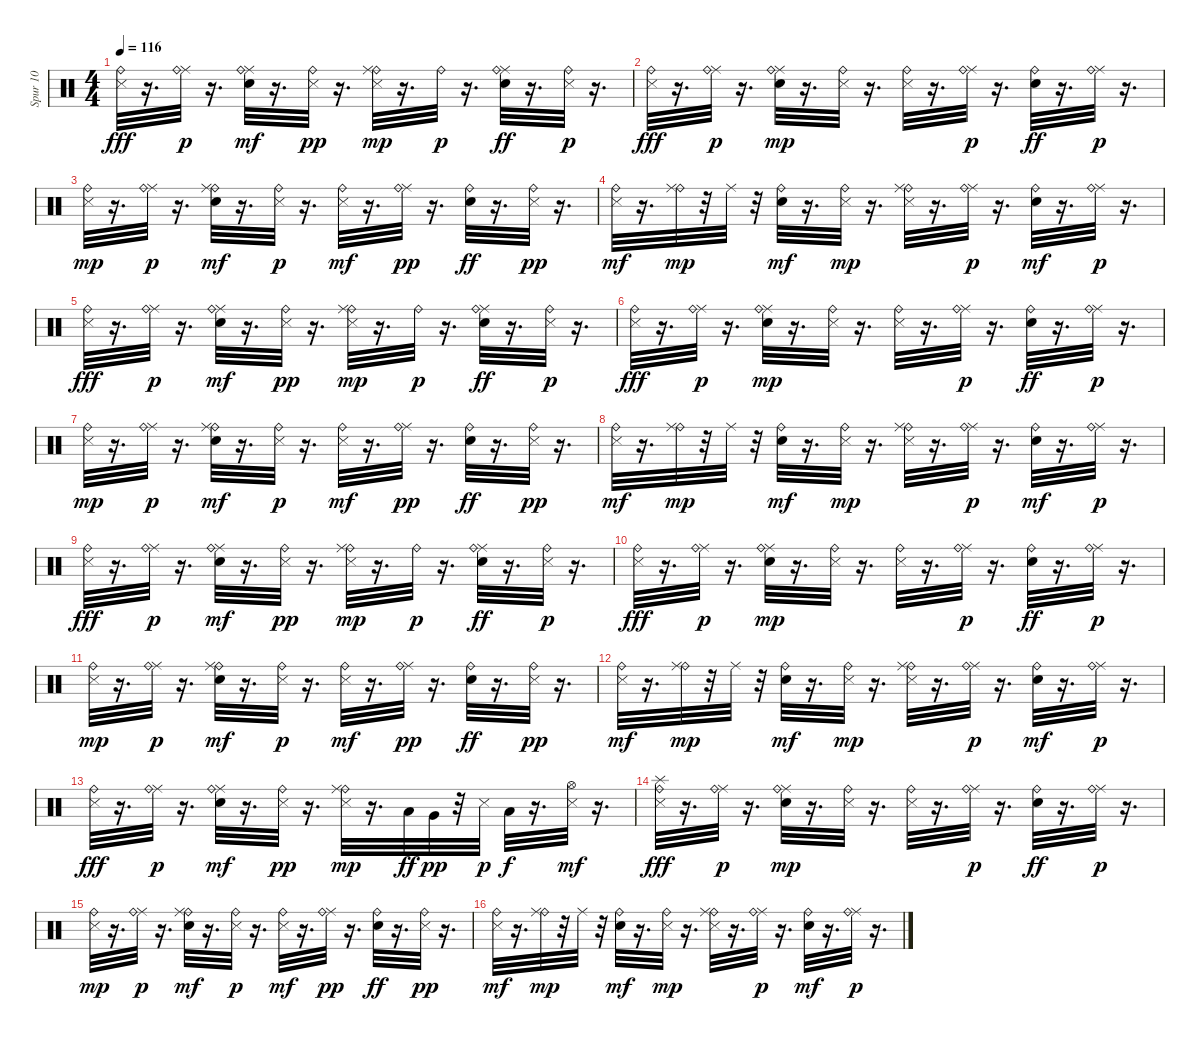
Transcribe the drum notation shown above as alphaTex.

\track ("Spur 10" "Spur 10") {instrument percussion}
\staff {score}
\articulation defaults
\ts (4 4)
\tempo 116
\clef neutral
\ks c
("Metronome (hit)" "Ride (bell)").32{dy fff} r.16{d} ("Ride (middle)" "Ride (bell)").32{dy p} r.16{d} ("Metronome (bell)" "Ride (middle)" "Ride (bell)").32{dy mf} r.16{d} ("Metronome (hit)" "Ride (bell)").32{dy pp} r.16{d} ("Metronome (hit)" "Ride (bell)" "Ride (middle)").32{dy mp} r.16{d} "Ride (bell)".32{dy p} r.16{d} ("Ride (middle)" "Metronome (bell)" "Ride (bell)").32{dy ff} r.16{d} ("Metronome (hit)" "Ride (bell)").32{dy p} r.16{d} |
("Metronome (hit)" "Ride (bell)").32{dy fff} r.16{d} ("Ride (middle)" "Ride (bell)").32{dy p} r.16{d} ("Metronome (bell)" "Ride (middle)" "Ride (bell)").32{dy mp} r.16{d} ("Metronome (hit)" "Ride (bell)").32 r.16{d} ("Metronome (hit)" "Ride (bell)").32 r.16{d} ("Ride (middle)" "Ride (bell)").32{dy p} r.16{d} ("Metronome (bell)" "Ride (bell)").32{dy ff} r.16{d} ("Ride (middle)" "Ride (bell)").32{dy p} r.16{d} |
("Metronome (hit)" "Ride (bell)").32{dy mp} r.16{d} ("Ride (middle)" "Ride (bell)").32{dy p} r.16{d} ("Metronome (bell)" "Ride (bell)" "Ride (middle)").32{dy mf} r.16{d} ("Metronome (hit)" "Ride (bell)").32{dy p} r.16{d} ("Metronome (hit)" "Ride (bell)").32{dy mf} r.16{d} ("Ride (middle)" "Ride (bell)").32{dy pp} r.16{d} ("Metronome (bell)" "Ride (bell)").32{dy ff} r.16{d} ("Metronome (hit)" "Ride (bell)").32{dy pp} r.16{d} |
("Metronome (hit)" "Ride (bell)").32{dy mf} r.16{d} ("Ride (bell)" "Ride (middle)").32{dy mp} r.32 "Ride (middle)".32 r.32 ("Metronome (bell)" "Ride (bell)").32{dy mf} r.16{d} ("Metronome (hit)" "Ride (bell)").32{dy mp} r.16{d} ("Metronome (hit)" "Ride (bell)" "Ride (middle)").32 r.16{d} ("Ride (middle)" "Ride (bell)").32{dy p} r.16{d} ("Metronome (bell)" "Ride (bell)").32{dy mf} r.16{d} ("Ride (middle)" "Ride (bell)").32{dy p} r.16{d} |
("Metronome (hit)" "Ride (bell)").32{dy fff} r.16{d} ("Ride (middle)" "Ride (bell)").32{dy p} r.16{d} ("Metronome (bell)" "Ride (middle)" "Ride (bell)").32{dy mf} r.16{d} ("Metronome (hit)" "Ride (bell)").32{dy pp} r.16{d} ("Metronome (hit)" "Ride (bell)" "Ride (middle)").32{dy mp} r.16{d} "Ride (bell)".32{dy p} r.16{d} ("Ride (middle)" "Metronome (bell)" "Ride (bell)").32{dy ff} r.16{d} ("Metronome (hit)" "Ride (bell)").32{dy p} r.16{d} |
("Metronome (hit)" "Ride (bell)").32{dy fff} r.16{d} ("Ride (middle)" "Ride (bell)").32{dy p} r.16{d} ("Metronome (bell)" "Ride (middle)" "Ride (bell)").32{dy mp} r.16{d} ("Metronome (hit)" "Ride (bell)").32 r.16{d} ("Metronome (hit)" "Ride (bell)").32 r.16{d} ("Ride (middle)" "Ride (bell)").32{dy p} r.16{d} ("Metronome (bell)" "Ride (bell)").32{dy ff} r.16{d} ("Ride (middle)" "Ride (bell)").32{dy p} r.16{d} |
("Metronome (hit)" "Ride (bell)").32{dy mp} r.16{d} ("Ride (middle)" "Ride (bell)").32{dy p} r.16{d} ("Metronome (bell)" "Ride (bell)" "Ride (middle)").32{dy mf} r.16{d} ("Metronome (hit)" "Ride (bell)").32{dy p} r.16{d} ("Metronome (hit)" "Ride (bell)").32{dy mf} r.16{d} ("Ride (middle)" "Ride (bell)").32{dy pp} r.16{d} ("Metronome (bell)" "Ride (bell)").32{dy ff} r.16{d} ("Metronome (hit)" "Ride (bell)").32{dy pp} r.16{d} |
("Metronome (hit)" "Ride (bell)").32{dy mf} r.16{d} ("Ride (bell)" "Ride (middle)").32{dy mp} r.32 "Ride (middle)".32 r.32 ("Metronome (bell)" "Ride (bell)").32{dy mf} r.16{d} ("Metronome (hit)" "Ride (bell)").32{dy mp} r.16{d} ("Metronome (hit)" "Ride (bell)" "Ride (middle)").32 r.16{d} ("Ride (middle)" "Ride (bell)").32{dy p} r.16{d} ("Metronome (bell)" "Ride (bell)").32{dy mf} r.16{d} ("Ride (middle)" "Ride (bell)").32{dy p} r.16{d} |
("Metronome (hit)" "Ride (bell)").32{dy fff} r.16{d} ("Ride (middle)" "Ride (bell)").32{dy p} r.16{d} ("Metronome (bell)" "Ride (middle)" "Ride (bell)").32{dy mf} r.16{d} ("Metronome (hit)" "Ride (bell)").32{dy pp} r.16{d} ("Metronome (hit)" "Ride (bell)" "Ride (middle)").32{dy mp} r.16{d} "Ride (bell)".32{dy p} r.16{d} ("Ride (middle)" "Metronome (bell)" "Ride (bell)").32{dy ff} r.16{d} ("Metronome (hit)" "Ride (bell)").32{dy p} r.16{d} |
("Metronome (hit)" "Ride (bell)").32{dy fff} r.16{d} ("Ride (middle)" "Ride (bell)").32{dy p} r.16{d} ("Metronome (bell)" "Ride (middle)" "Ride (bell)").32{dy mp} r.16{d} ("Metronome (hit)" "Ride (bell)").32 r.16{d} ("Metronome (hit)" "Ride (bell)").32 r.16{d} ("Ride (middle)" "Ride (bell)").32{dy p} r.16{d} ("Metronome (bell)" "Ride (bell)").32{dy ff} r.16{d} ("Ride (middle)" "Ride (bell)").32{dy p} r.16{d} |
("Metronome (hit)" "Ride (bell)").32{dy mp} r.16{d} ("Ride (middle)" "Ride (bell)").32{dy p} r.16{d} ("Metronome (bell)" "Ride (bell)" "Ride (middle)").32{dy mf} r.16{d} ("Metronome (hit)" "Ride (bell)").32{dy p} r.16{d} ("Metronome (hit)" "Ride (bell)").32{dy mf} r.16{d} ("Ride (middle)" "Ride (bell)").32{dy pp} r.16{d} ("Metronome (bell)" "Ride (bell)").32{dy ff} r.16{d} ("Metronome (hit)" "Ride (bell)").32{dy pp} r.16{d} |
("Metronome (hit)" "Ride (bell)").32{dy mf} r.16{d} ("Ride (bell)" "Ride (middle)").32{dy mp} r.32 "Ride (middle)".32 r.32 ("Metronome (bell)" "Ride (bell)").32{dy mf} r.16{d} ("Metronome (hit)" "Ride (bell)").32{dy mp} r.16{d} ("Metronome (hit)" "Ride (bell)" "Ride (middle)").32 r.16{d} ("Ride (middle)" "Ride (bell)").32{dy p} r.16{d} ("Metronome (bell)" "Ride (bell)").32{dy mf} r.16{d} ("Ride (middle)" "Ride (bell)").32{dy p} r.16{d} |
("Metronome (hit)" "Ride (bell)").32{dy fff} r.16{d} ("Ride (middle)" "Ride (bell)").32{dy p} r.16{d} ("Metronome (bell)" "Ride (middle)" "Ride (bell)").32{dy mf} r.16{d} ("Metronome (hit)" "Ride (bell)").32{dy pp} r.16{d} ("Metronome (hit)" "Ride (bell)" "Ride (middle)").32{dy mp} r.16{d} "Low Tom (hit)".32{dy ff} "Very Low Tom (hit)".32{dy pp} r.32 "Metronome (hit)".32{dy p} "Low Floor Tom (hit)".32{dy f} r.16{d} ("Metronome (hit)" "Hi-Hat (open)").32{dy mf} r.16{d} |
("Splash (hit)" "Metronome (hit)" "Ride (bell)").32{dy fff} r.16{d} ("Ride (middle)" "Ride (bell)").32{dy p} r.16{d} ("Metronome (bell)" "Ride (middle)" "Ride (bell)").32{dy mp} r.16{d} ("Metronome (hit)" "Ride (bell)").32 r.16{d} ("Metronome (hit)" "Ride (bell)").32 r.16{d} ("Ride (middle)" "Ride (bell)").32{dy p} r.16{d} ("Metronome (bell)" "Ride (bell)").32{dy ff} r.16{d} ("Ride (middle)" "Ride (bell)").32{dy p} r.16{d} |
("Metronome (hit)" "Ride (bell)").32{dy mp} r.16{d} ("Ride (middle)" "Ride (bell)").32{dy p} r.16{d} ("Metronome (bell)" "Ride (bell)" "Ride (middle)").32{dy mf} r.16{d} ("Metronome (hit)" "Ride (bell)").32{dy p} r.16{d} ("Metronome (hit)" "Ride (bell)").32{dy mf} r.16{d} ("Ride (middle)" "Ride (bell)").32{dy pp} r.16{d} ("Metronome (bell)" "Ride (bell)").32{dy ff} r.16{d} ("Metronome (hit)" "Ride (bell)").32{dy pp} r.16{d} |
("Metronome (hit)" "Ride (bell)").32{dy mf} r.16{d} ("Ride (bell)" "Ride (middle)").32{dy mp} r.32 "Ride (middle)".32 r.32 ("Metronome (bell)" "Ride (bell)").32{dy mf} r.16{d} ("Metronome (hit)" "Ride (bell)").32{dy mp} r.16{d} ("Metronome (hit)" "Ride (bell)" "Ride (middle)").32 r.16{d} ("Ride (middle)" "Ride (bell)").32{dy p} r.16{d} ("Metronome (bell)" "Ride (bell)").32{dy mf} r.16{d} ("Ride (middle)" "Ride (bell)").32{dy p} r.16{d}
